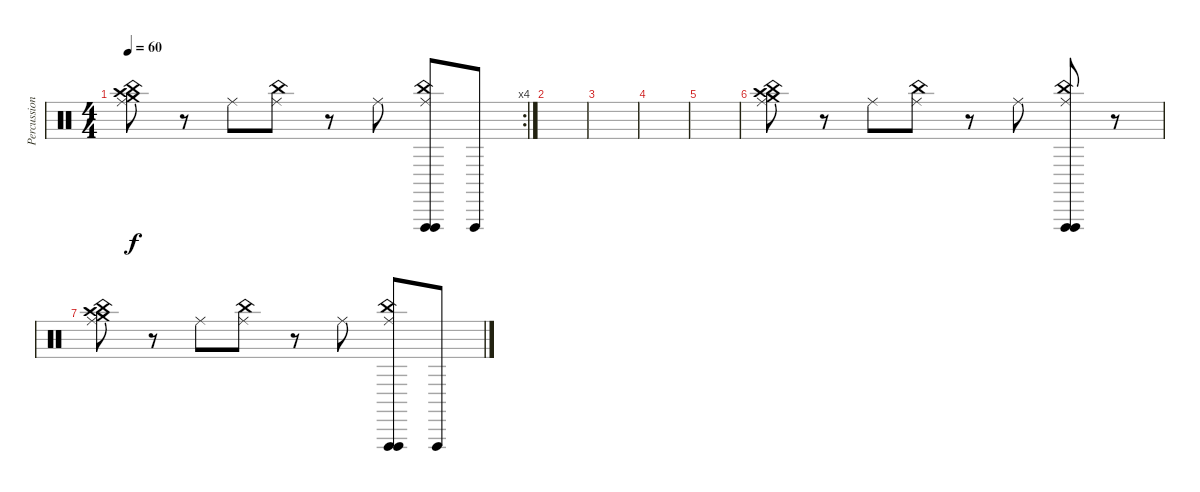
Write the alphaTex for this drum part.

\track ("Percussions" "Percussion") {instrument percussion}
\staff {score}
\articulation defaults
\rc 4
\ts (4 4)
\tempo 60
\clef neutral
\ks c
("Ride (middle)" "Crash high (hit)" "China (hit)" "Crash medium (hit)").8{dy f} r.8 "Ride (middle)".8 ("Ride (middle)" "China (hit)").8 r.8 "Ride (middle)".8 ("Ride (middle)" "Vibraslap (hit)" "China (hit)" "Vibraslap (hit)").8 "Vibraslap (hit)".8 |
|
|
|
|
("Ride (middle)" "Crash high (hit)" "China (hit)" "Crash medium (hit)").8 r.8 "Ride (middle)".8 ("Ride (middle)" "China (hit)").8 r.8 "Ride (middle)".8 ("Ride (middle)" "Vibraslap (hit)" "China (hit)" "Vibraslap (hit)").8 r.8 |
("Ride (middle)" "Crash high (hit)" "China (hit)" "Crash medium (hit)").8 r.8 "Ride (middle)".8 ("Ride (middle)" "China (hit)").8 r.8 "Ride (middle)".8 ("Ride (middle)" "Vibraslap (hit)" "China (hit)" "Vibraslap (hit)").8 "Vibraslap (hit)".8
